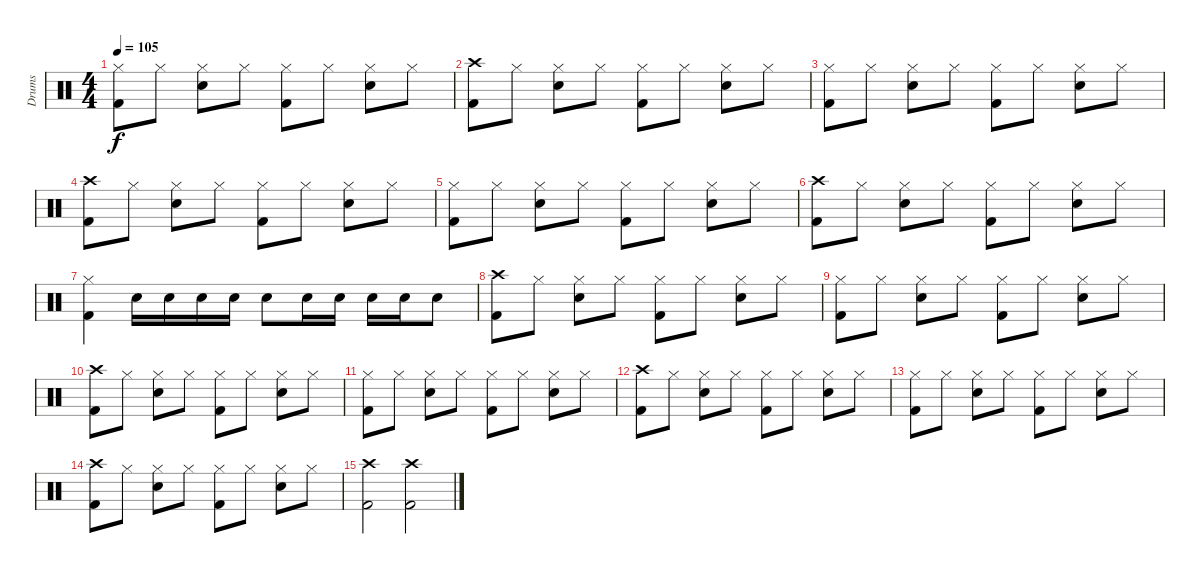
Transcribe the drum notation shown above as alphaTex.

\track ("Drums" "Drums") {instrument percussion}
\staff {score}
\articulation defaults
\ts (4 4)
\tempo 105
\clef neutral
\ks c
("Kick (hit) 2" "Hi-Hat (closed)").8{dy f} "Hi-Hat (closed)".8 ("Snare (hit) 2" "Hi-Hat (closed)").8 "Hi-Hat (closed)".8 ("Kick (hit) 2" "Hi-Hat (closed)").8 "Hi-Hat (closed)".8 ("Snare (hit) 2" "Hi-Hat (closed)").8 "Hi-Hat (closed)".8 |
("Kick (hit) 2" "Crash high (hit)").8 "Hi-Hat (closed)".8 ("Snare (hit) 2" "Hi-Hat (closed)").8 "Hi-Hat (closed)".8 ("Kick (hit) 2" "Hi-Hat (closed)").8 "Hi-Hat (closed)".8 ("Snare (hit) 2" "Hi-Hat (closed)").8 "Hi-Hat (closed)".8 |
("Kick (hit) 2" "Hi-Hat (closed)").8 "Hi-Hat (closed)".8 ("Snare (hit) 2" "Hi-Hat (closed)").8 "Hi-Hat (closed)".8 ("Kick (hit) 2" "Hi-Hat (closed)").8 "Hi-Hat (closed)".8 ("Snare (hit) 2" "Hi-Hat (closed)").8 "Hi-Hat (closed)".8 |
("Kick (hit) 2" "Crash high (hit)").8 "Hi-Hat (closed)".8 ("Snare (hit) 2" "Hi-Hat (closed)").8 "Hi-Hat (closed)".8 ("Kick (hit) 2" "Hi-Hat (closed)").8 "Hi-Hat (closed)".8 ("Snare (hit) 2" "Hi-Hat (closed)").8 "Hi-Hat (closed)".8 |
("Kick (hit) 2" "Hi-Hat (closed)").8 "Hi-Hat (closed)".8 ("Snare (hit) 2" "Hi-Hat (closed)").8 "Hi-Hat (closed)".8 ("Kick (hit) 2" "Hi-Hat (closed)").8 "Hi-Hat (closed)".8 ("Snare (hit) 2" "Hi-Hat (closed)").8 "Hi-Hat (closed)".8 |
("Kick (hit) 2" "Crash high (hit)").8 "Hi-Hat (closed)".8 ("Snare (hit) 2" "Hi-Hat (closed)").8 "Hi-Hat (closed)".8 ("Kick (hit) 2" "Hi-Hat (closed)").8 "Hi-Hat (closed)".8 ("Snare (hit) 2" "Hi-Hat (closed)").8 "Hi-Hat (closed)".8 |
("Kick (hit) 2" "Hi-Hat (closed)").4 "Snare (hit) 2".16 "Snare (hit) 2".16 "Snare (hit) 2".16 "Snare (hit) 2".16 "Snare (hit) 2".8 "Snare (hit) 2".16 "Snare (hit) 2".16 "Snare (hit) 2".16 "Snare (hit) 2".16 "Snare (hit) 2".8 |
("Kick (hit) 2" "Crash high (hit)").8 "Hi-Hat (closed)".8 ("Snare (hit) 2" "Hi-Hat (closed)").8 "Hi-Hat (closed)".8 ("Kick (hit) 2" "Hi-Hat (closed)").8 "Hi-Hat (closed)".8 ("Snare (hit) 2" "Hi-Hat (closed)").8 "Hi-Hat (closed)".8 |
("Kick (hit) 2" "Hi-Hat (closed)").8 "Hi-Hat (closed)".8 ("Snare (hit) 2" "Hi-Hat (closed)").8 "Hi-Hat (closed)".8 ("Kick (hit) 2" "Hi-Hat (closed)").8 "Hi-Hat (closed)".8 ("Snare (hit) 2" "Hi-Hat (closed)").8 "Hi-Hat (closed)".8 |
("Kick (hit) 2" "Crash high (hit)").8 "Hi-Hat (closed)".8 ("Snare (hit) 2" "Hi-Hat (closed)").8 "Hi-Hat (closed)".8 ("Kick (hit) 2" "Hi-Hat (closed)").8 "Hi-Hat (closed)".8 ("Snare (hit) 2" "Hi-Hat (closed)").8 "Hi-Hat (closed)".8 |
("Kick (hit) 2" "Hi-Hat (closed)").8 "Hi-Hat (closed)".8 ("Snare (hit) 2" "Hi-Hat (closed)").8 "Hi-Hat (closed)".8 ("Kick (hit) 2" "Hi-Hat (closed)").8 "Hi-Hat (closed)".8 ("Snare (hit) 2" "Hi-Hat (closed)").8 "Hi-Hat (closed)".8 |
("Kick (hit) 2" "Crash high (hit)").8 "Hi-Hat (closed)".8 ("Snare (hit) 2" "Hi-Hat (closed)").8 "Hi-Hat (closed)".8 ("Kick (hit) 2" "Hi-Hat (closed)").8 "Hi-Hat (closed)".8 ("Snare (hit) 2" "Hi-Hat (closed)").8 "Hi-Hat (closed)".8 |
("Kick (hit) 2" "Hi-Hat (closed)").8 "Hi-Hat (closed)".8 ("Snare (hit) 2" "Hi-Hat (closed)").8 "Hi-Hat (closed)".8 ("Kick (hit) 2" "Hi-Hat (closed)").8 "Hi-Hat (closed)".8 ("Snare (hit) 2" "Hi-Hat (closed)").8 "Hi-Hat (closed)".8 |
("Kick (hit) 2" "Crash high (hit)").8 "Hi-Hat (closed)".8 ("Snare (hit) 2" "Hi-Hat (closed)").8 "Hi-Hat (closed)".8 ("Kick (hit) 2" "Hi-Hat (closed)").8 "Hi-Hat (closed)".8 ("Snare (hit) 2" "Hi-Hat (closed)").8 "Hi-Hat (closed)".8 |
("Kick (hit) 2" "Crash high (hit)").2 ("Kick (hit) 2" "Crash high (hit)").2
